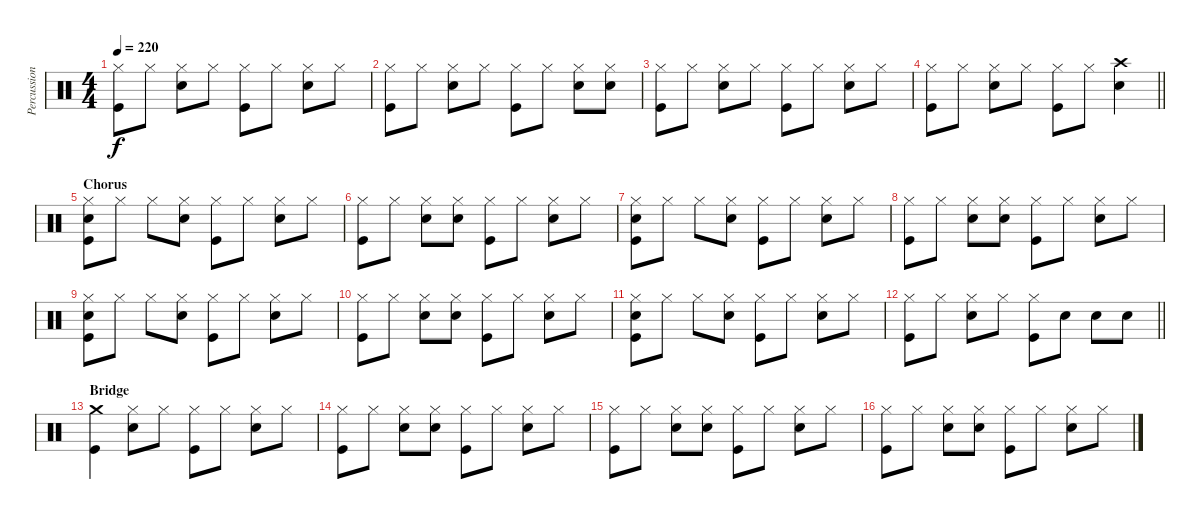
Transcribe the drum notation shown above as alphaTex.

\track ("Percussion" "Percussion") {instrument percussion}
\staff {score}
\articulation defaults
\ts (4 4)
\tempo 220
\clef neutral
\ks c
("Kick (hit)" "Hi-Hat (closed)").8{dy f} "Hi-Hat (closed)".8 ("Hi-Hat (closed)" "Snare (hit) 2").8 "Hi-Hat (closed)".8 ("Kick (hit)" "Hi-Hat (closed)").8 "Hi-Hat (closed)".8 ("Hi-Hat (closed)" "Snare (hit) 2").8 "Hi-Hat (closed)".8 |
("Kick (hit)" "Hi-Hat (closed)").8 "Hi-Hat (closed)".8 ("Hi-Hat (closed)" "Snare (hit) 2").8 "Hi-Hat (closed)".8 ("Kick (hit)" "Hi-Hat (closed)").8 "Hi-Hat (closed)".8 ("Hi-Hat (closed)" "Snare (hit) 2").8 ("Hi-Hat (closed)" "Snare (hit) 2").8 |
("Kick (hit)" "Hi-Hat (closed)").8 "Hi-Hat (closed)".8 ("Hi-Hat (closed)" "Snare (hit) 2").8 "Hi-Hat (closed)".8 ("Kick (hit)" "Hi-Hat (closed)").8 "Hi-Hat (closed)".8 ("Hi-Hat (closed)" "Snare (hit) 2").8 "Hi-Hat (closed)".8 |
\barLineRight lightlight
("Kick (hit)" "Hi-Hat (closed)").8 "Hi-Hat (closed)".8 ("Hi-Hat (closed)" "Snare (hit) 2").8 "Hi-Hat (closed)".8 ("Kick (hit)" "Hi-Hat (closed)").8 "Hi-Hat (closed)".8 ("Crash high (hit)" "Snare (hit) 2").4 |
\section ("" "Chorus")
("Kick (hit)" "Hi-Hat (closed)" "Snare (hit) 2").8 "Hi-Hat (closed)".8 "Hi-Hat (closed)".8 ("Hi-Hat (closed)" "Snare (hit) 2").8 ("Kick (hit)" "Hi-Hat (closed)").8 "Hi-Hat (closed)".8 ("Hi-Hat (closed)" "Snare (hit) 2").8 "Hi-Hat (closed)".8 |
("Kick (hit)" "Hi-Hat (closed)").8 "Hi-Hat (closed)".8 ("Hi-Hat (closed)" "Snare (hit) 2").8 ("Hi-Hat (closed)" "Snare (hit) 2").8 ("Kick (hit)" "Hi-Hat (closed)").8 "Hi-Hat (closed)".8 ("Hi-Hat (closed)" "Snare (hit) 2").8 "Hi-Hat (closed)".8 |
("Kick (hit)" "Hi-Hat (closed)" "Snare (hit) 2").8 "Hi-Hat (closed)".8 "Hi-Hat (closed)".8 ("Hi-Hat (closed)" "Snare (hit) 2").8 ("Kick (hit)" "Hi-Hat (closed)").8 "Hi-Hat (closed)".8 ("Hi-Hat (closed)" "Snare (hit) 2").8 "Hi-Hat (closed)".8 |
("Kick (hit)" "Hi-Hat (closed)").8 "Hi-Hat (closed)".8 ("Hi-Hat (closed)" "Snare (hit) 2").8 ("Hi-Hat (closed)" "Snare (hit) 2").8 ("Kick (hit)" "Hi-Hat (closed)").8 "Hi-Hat (closed)".8 ("Hi-Hat (closed)" "Snare (hit) 2").8 "Hi-Hat (closed)".8 |
("Kick (hit)" "Hi-Hat (closed)" "Snare (hit) 2").8 "Hi-Hat (closed)".8 "Hi-Hat (closed)".8 ("Hi-Hat (closed)" "Snare (hit) 2").8 ("Kick (hit)" "Hi-Hat (closed)").8 "Hi-Hat (closed)".8 ("Hi-Hat (closed)" "Snare (hit) 2").8 "Hi-Hat (closed)".8 |
("Kick (hit)" "Hi-Hat (closed)").8 "Hi-Hat (closed)".8 ("Hi-Hat (closed)" "Snare (hit) 2").8 ("Hi-Hat (closed)" "Snare (hit) 2").8 ("Kick (hit)" "Hi-Hat (closed)").8 "Hi-Hat (closed)".8 ("Hi-Hat (closed)" "Snare (hit) 2").8 "Hi-Hat (closed)".8 |
("Kick (hit)" "Hi-Hat (closed)" "Snare (hit) 2").8 "Hi-Hat (closed)".8 "Hi-Hat (closed)".8 ("Hi-Hat (closed)" "Snare (hit) 2").8 ("Kick (hit)" "Hi-Hat (closed)").8 "Hi-Hat (closed)".8 ("Hi-Hat (closed)" "Snare (hit) 2").8 "Hi-Hat (closed)".8 |
\barLineRight lightlight
("Kick (hit)" "Hi-Hat (closed)").8 "Hi-Hat (closed)".8 ("Hi-Hat (closed)" "Snare (hit) 2").8 "Hi-Hat (closed)".8 ("Kick (hit)" "Hi-Hat (closed)").8 "Snare (hit) 2".8 "Snare (hit) 2".8 "Snare (hit) 2".8 |
\section ("" "Bridge")
("Kick (hit)" "Crash medium (hit)").4 ("Hi-Hat (closed)" "Snare (hit) 2").8 "Hi-Hat (closed)".8 ("Kick (hit)" "Hi-Hat (closed)").8 "Hi-Hat (closed)".8 ("Hi-Hat (closed)" "Snare (hit) 2").8 "Hi-Hat (closed)".8 |
("Kick (hit)" "Hi-Hat (closed)").8 "Hi-Hat (closed)".8 ("Hi-Hat (closed)" "Snare (hit) 2").8 ("Hi-Hat (closed)" "Snare (hit) 2").8 ("Kick (hit)" "Hi-Hat (closed)").8 "Hi-Hat (closed)".8 ("Hi-Hat (closed)" "Snare (hit) 2").8 "Hi-Hat (closed)".8 |
("Kick (hit)" "Hi-Hat (closed)").8 "Hi-Hat (closed)".8 ("Hi-Hat (closed)" "Snare (hit) 2").8 ("Hi-Hat (closed)" "Snare (hit) 2").8 ("Kick (hit)" "Hi-Hat (closed)").8 "Hi-Hat (closed)".8 ("Hi-Hat (closed)" "Snare (hit) 2").8 "Hi-Hat (closed)".8 |
("Kick (hit)" "Hi-Hat (closed)").8 "Hi-Hat (closed)".8 ("Hi-Hat (closed)" "Snare (hit) 2").8 ("Hi-Hat (closed)" "Snare (hit) 2").8 ("Kick (hit)" "Hi-Hat (closed)").8 "Hi-Hat (closed)".8 ("Hi-Hat (closed)" "Snare (hit) 2").8 "Hi-Hat (closed)".8
